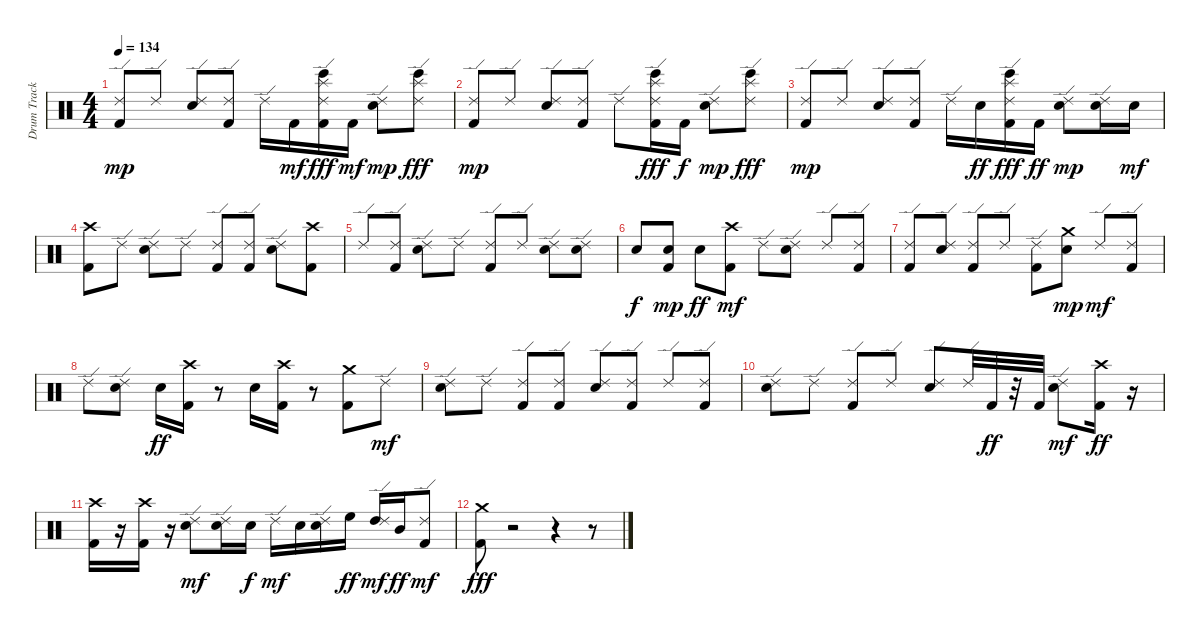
\track ("Drum Track" "Drum Track") {instrument percussion}
\staff {score}
\articulation defaults
\ts (4 4)
\tempo 134
\clef neutral
\ks c
("Kick (hit) 2" "Ride (edge) 2").8{dy mp} "Ride (edge) 2".8 ("Electric Snare (hit)" "Ride (edge) 2").8 ("Kick (hit) 2" "Ride (edge) 2").8 "Ride (edge) 2".16 "Kick (hit) 2".16{dy mf} ("Kick (hit) 2" "Splash (hit)" "Ride (edge) 2" "Bongo High (hit)").16{dy fff} "Kick (hit) 2".16{dy mf} ("Electric Snare (hit)" "Ride (edge) 2").8{dy mp} ("Splash (hit)" "Ride (edge) 2" "Bongo High (hit)").8{dy fff} |
("Kick (hit) 2" "Ride (edge) 2").8{dy mp} "Ride (edge) 2".8 ("Electric Snare (hit)" "Ride (edge) 2").8 ("Kick (hit) 2" "Ride (edge) 2").8 "Ride (edge) 2".8 ("Kick (hit) 2" "Splash (hit)" "Ride (edge) 2" "Bongo High (hit)").16{dy fff} "Kick (hit) 2".16{dy f} ("Electric Snare (hit)" "Ride (edge) 2").8{dy mp} ("Splash (hit)" "Ride (edge) 2" "Bongo High (hit)").8{dy fff} |
("Kick (hit) 2" "Ride (edge) 2").8{dy mp} "Ride (edge) 2".8 ("Electric Snare (hit)" "Ride (edge) 2").8 ("Kick (hit) 2" "Ride (edge) 2").8 "Ride (edge) 2".16 "Electric Snare (hit)".16{dy ff} ("Kick (hit) 2" "Splash (hit)" "Ride (edge) 2" "Bongo High (hit)").16{dy fff} "Kick (hit) 2".16{dy ff} ("Electric Snare (hit)" "Ride (edge) 2").8{dy mp} ("Electric Snare (hit)" "Ride (edge) 2").16 "Electric Snare (hit)".16{dy mf} |
("Kick (hit) 2" "Crash high (hit)").8 "Ride (edge) 2".8{volume 14} ("Electric Snare (hit)" "Ride (edge) 2").8{volume 14} "Ride (edge) 2".8{volume 13} ("Kick (hit) 2" "Ride (edge) 2").8{volume 13} ("Kick (hit) 2" "Ride (edge) 2").8{volume 13} ("Electric Snare (hit)" "Ride (edge) 2").8{volume 13} ("Kick (hit) 2" "Crash high (hit)").8{volume 12} |
"Ride (edge) 2".8{volume 12} ("Kick (hit) 2" "Ride (edge) 2").8{volume 12} ("Electric Snare (hit)" "Ride (edge) 2").8{volume 12} "Ride (edge) 2".8{volume 12} ("Kick (hit) 2" "Ride (edge) 2").8{volume 11} "Ride (edge) 2".8{volume 11} ("Electric Snare (hit)" "Ride (edge) 2").8{volume 11} ("Electric Snare (hit)" "Ride (edge) 2").8{volume 11} |
"Electric Snare (hit)".8{dy f volume 11} ("Kick (hit) 2" "Electric Snare (hit)").8{dy mp volume 10} "Electric Snare (hit)".8{dy ff volume 10} ("Kick (hit) 2" "Crash high (hit)").8{dy mf volume 10} "Ride (edge) 2".8{volume 10} ("Electric Snare (hit)" "Ride (edge) 2").8{volume 10} "Ride (edge) 2".8{volume 9} ("Kick (hit) 2" "Ride (edge) 2").8{volume 9} |
("Kick (hit) 2" "Ride (edge) 2").8{volume 9} ("Electric Snare (hit)" "Ride (edge) 2").8{volume 9} ("Kick (hit) 2" "Ride (edge) 2").8{volume 9} "Ride (edge) 2".8{volume 8} ("Kick (hit) 2" "Ride (edge) 2").8{volume 8} ("Electric Snare (hit)" "Crash medium (hit)").8{dy mp volume 8} "Ride (edge) 2".8{dy mf volume 8} ("Kick (hit) 2" "Ride (edge) 2").8{volume 8} |
"Ride (edge) 2".8{volume 7} ("Electric Snare (hit)" "Ride (edge) 2").8{volume 7} "Electric Snare (hit)".16{dy ff volume 7} ("Kick (hit) 2" "Crash high (hit)").16{volume 7} r.8 "Electric Snare (hit)".16{volume 6} ("Kick (hit) 2" "Crash high (hit)").16 r.8 ("Kick (hit) 2" "Crash medium (hit)").8{volume 6} "Ride (edge) 2".8{dy mf volume 6} |
("Electric Snare (hit)" "Ride (edge) 2").8{volume 6} "Ride (edge) 2".8{volume 6} ("Kick (hit) 2" "Ride (edge) 2").8{volume 5} ("Kick (hit) 2" "Ride (edge) 2").8{volume 5} ("Electric Snare (hit)" "Ride (edge) 2").8{volume 5} ("Kick (hit) 2" "Ride (edge) 2").8{volume 5} "Ride (edge) 2".8{volume 4} ("Kick (hit) 2" "Ride (edge) 2").8{volume 4} |
("Electric Snare (hit)" "Ride (edge) 2").8{volume 4} "Ride (edge) 2".8{volume 4} ("Kick (hit) 2" "Ride (edge) 2").8{volume 4} "Ride (edge) 2".8{volume 4} ("Electric Snare (hit)" "Ride (edge) 2").8{volume 3} "Ride (edge) 2".32{volume 3} "Kick (hit) 2".32{dy ff volume 3} r.32 "Kick (hit) 2".32 ("Electric Snare (hit)" "Ride (edge) 2").8{dy mf volume 3} ("Kick (hit) 2" "Crash high (hit)").16{dy ff volume 3} r.16 |
("Kick (hit) 2" "Crash high (hit)").16{volume 2} r.16 ("Kick (hit) 2" "Crash high (hit)").16{volume 2} r.16 ("Electric Snare (hit)" "Ride (edge) 2").8{dy mf volume 2} ("Electric Snare (hit)" "Ride (edge) 2").16{volume 2} "Electric Snare (hit)".16{dy f volume 2} "Ride (edge) 2".16{dy mf volume 2} "Electric Snare (hit)".16 ("Electric Snare (hit)" "Ride (edge) 2").16{volume 2} "High Floor Tom (hit)".16{dy ff volume 1} ("High Tom (hit)" "Ride (edge) 2").16{dy mf volume 1} "Mid Tom (hit)".16{dy ff volume 1} ("Kick (hit) 2" "Ride (edge) 2").8{dy mf} |
("Kick (hit) 2" "Crash medium (hit)").8{dy fff volume 1} r.2 r.4 r.8
